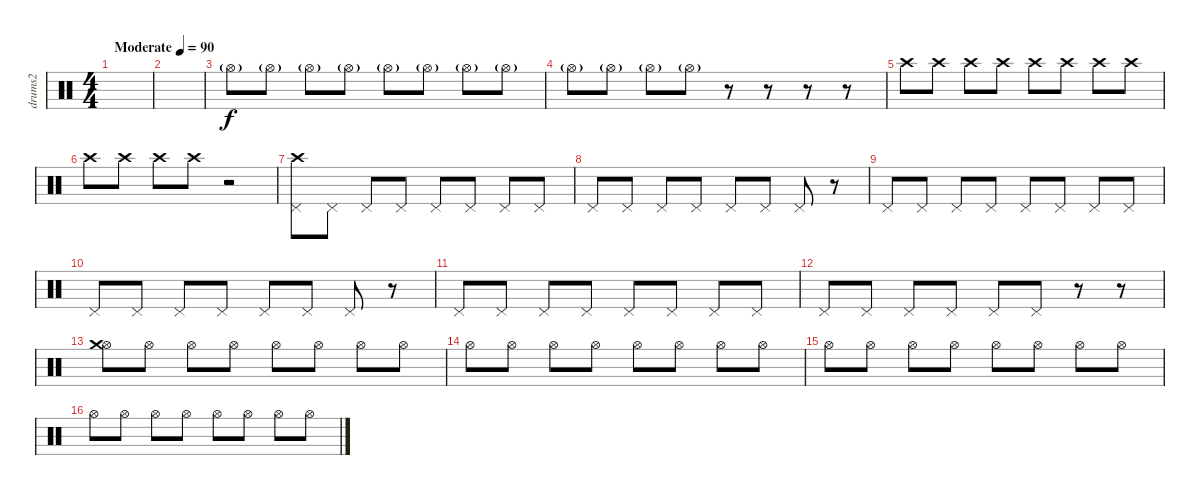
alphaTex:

\track ("drums2" "drums2") {instrument percussion}
\staff {score}
\articulation defaults
\ts (4 4)
\tempo (90 "Moderate")
\clef neutral
\ks c
|
|
"Hi-Hat (open)"{g}.8 "Hi-Hat (open)"{g}.8 "Hi-Hat (open)"{g}.8 "Hi-Hat (open)"{g}.8 "Hi-Hat (open)"{g}.8 "Hi-Hat (open)"{g}.8 "Hi-Hat (open)"{g}.8 "Hi-Hat (open)"{g}.8 |
"Hi-Hat (open)"{g}.8 "Hi-Hat (open)"{g}.8 "Hi-Hat (open)"{g}.8 "Hi-Hat (open)"{g}.8 r.8 r.8 r.8 r.8 |
"Crash high (hit)".8{dy f} "Crash high (hit)".8 "Crash high (hit)".8 "Crash high (hit)".8 "Crash high (hit)".8 "Crash high (hit)".8 "Crash high (hit)".8 "Crash high (hit)".8 |
"Crash high (hit)".8 "Crash high (hit)".8 "Crash high (hit)".8 "Crash high (hit)".8 r.2 |
("Pedal Hi-Hat (hit)" "Crash high (hit)").8 "Pedal Hi-Hat (hit)".8 "Pedal Hi-Hat (hit)".8 "Pedal Hi-Hat (hit)".8 "Pedal Hi-Hat (hit)".8 "Pedal Hi-Hat (hit)".8 "Pedal Hi-Hat (hit)".8 "Pedal Hi-Hat (hit)".8 |
"Pedal Hi-Hat (hit)".8 "Pedal Hi-Hat (hit)".8 "Pedal Hi-Hat (hit)".8 "Pedal Hi-Hat (hit)".8 "Pedal Hi-Hat (hit)".8 "Pedal Hi-Hat (hit)".8 "Pedal Hi-Hat (hit)".8 r.8 |
"Pedal Hi-Hat (hit)".8 "Pedal Hi-Hat (hit)".8 "Pedal Hi-Hat (hit)".8 "Pedal Hi-Hat (hit)".8 "Pedal Hi-Hat (hit)".8 "Pedal Hi-Hat (hit)".8 "Pedal Hi-Hat (hit)".8 "Pedal Hi-Hat (hit)".8 |
"Pedal Hi-Hat (hit)".8 "Pedal Hi-Hat (hit)".8 "Pedal Hi-Hat (hit)".8 "Pedal Hi-Hat (hit)".8 "Pedal Hi-Hat (hit)".8 "Pedal Hi-Hat (hit)".8 "Pedal Hi-Hat (hit)".8 r.8 |
"Pedal Hi-Hat (hit)".8 "Pedal Hi-Hat (hit)".8 "Pedal Hi-Hat (hit)".8 "Pedal Hi-Hat (hit)".8 "Pedal Hi-Hat (hit)".8 "Pedal Hi-Hat (hit)".8 "Pedal Hi-Hat (hit)".8 "Pedal Hi-Hat (hit)".8 |
"Pedal Hi-Hat (hit)".8 "Pedal Hi-Hat (hit)".8 "Pedal Hi-Hat (hit)".8 "Pedal Hi-Hat (hit)".8 "Pedal Hi-Hat (hit)".8 "Pedal Hi-Hat (hit)".8 r.8 r.8 |
("Hi-Hat (open)" "Crash medium (hit)").8 "Hi-Hat (open)".8 "Hi-Hat (open)".8 "Hi-Hat (open)".8 "Hi-Hat (open)".8 "Hi-Hat (open)".8 "Hi-Hat (open)".8 "Hi-Hat (open)".8 |
"Hi-Hat (open)".8 "Hi-Hat (open)".8 "Hi-Hat (open)".8 "Hi-Hat (open)".8 "Hi-Hat (open)".8 "Hi-Hat (open)".8 "Hi-Hat (open)".8 "Hi-Hat (open)".8 |
"Hi-Hat (open)".8 "Hi-Hat (open)".8 "Hi-Hat (open)".8 "Hi-Hat (open)".8 "Hi-Hat (open)".8 "Hi-Hat (open)".8 "Hi-Hat (open)".8 "Hi-Hat (open)".8 |
"Hi-Hat (open)".8 "Hi-Hat (open)".8 "Hi-Hat (open)".8 "Hi-Hat (open)".8 "Hi-Hat (open)".8 "Hi-Hat (open)".8 "Hi-Hat (open)".8 "Hi-Hat (open)".8
